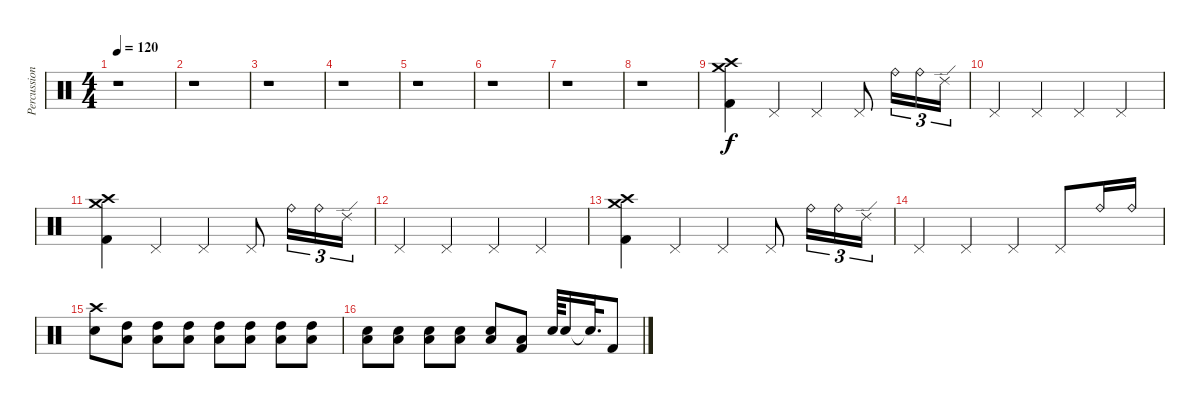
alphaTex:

\track ("Percussion" "Percussion") {instrument percussion}
\staff {score}
\articulation defaults
\ts (4 4)
\tempo 120
\clef neutral
\ks c
r.1{dy f} |
r.1 |
r.1 |
r.1 |
r.1 |
r.1 |
r.1 |
r.1 |
("Crash medium (hit)" "Crash high (hit)" "Kick (hit) 2").4 "Pedal Hi-Hat (hit)".4 "Pedal Hi-Hat (hit)".4 "Pedal Hi-Hat (hit)".8 "Ride (bell)".16{tu (3 2)} "Ride (bell)".16{tu (3 2)} "Ride (edge) 2".16{tu (3 2)} |
"Pedal Hi-Hat (hit)".4 "Pedal Hi-Hat (hit)".4 "Pedal Hi-Hat (hit)".4 "Pedal Hi-Hat (hit)".4 |
("Crash medium (hit)" "Crash high (hit)" "Kick (hit) 2").4 "Pedal Hi-Hat (hit)".4 "Pedal Hi-Hat (hit)".4 "Pedal Hi-Hat (hit)".8 "Ride (bell)".16{tu (3 2)} "Ride (bell)".16{tu (3 2)} "Ride (edge) 2".16{tu (3 2)} |
"Pedal Hi-Hat (hit)".4 "Pedal Hi-Hat (hit)".4 "Pedal Hi-Hat (hit)".4 "Pedal Hi-Hat (hit)".4 |
("Crash medium (hit)" "Crash high (hit)" "Kick (hit) 2").4 "Pedal Hi-Hat (hit)".4 "Pedal Hi-Hat (hit)".4 "Pedal Hi-Hat (hit)".8 "Ride (bell)".16{tu (3 2)} "Ride (bell)".16{tu (3 2)} "Ride (edge) 2".16{tu (3 2)} |
"Pedal Hi-Hat (hit)".4 "Pedal Hi-Hat (hit)".4 "Pedal Hi-Hat (hit)".4 "Pedal Hi-Hat (hit)".8 "Ride (bell)".16 "Ride (bell)".16 |
("Crash high (hit)" "Electric Snare (hit)").8 ("Low Floor Tom (hit)" "High Tom (hit)").8 ("Low Floor Tom (hit)" "High Tom (hit)").8 ("Low Floor Tom (hit)" "High Tom (hit)").8 ("Low Floor Tom (hit)" "High Tom (hit)").8 ("Low Floor Tom (hit)" "High Tom (hit)").8 ("Low Floor Tom (hit)" "High Tom (hit)").8 ("Low Floor Tom (hit)" "High Tom (hit)").8 |
("Low Floor Tom (hit)" "Electric Snare (hit)").8 ("Low Floor Tom (hit)" "Electric Snare (hit)").8 ("Low Floor Tom (hit)" "Electric Snare (hit)").8 ("Low Floor Tom (hit)" "Electric Snare (hit)").8 ("Low Floor Tom (hit)" "Electric Snare (hit)").8 ("Low Floor Tom (hit)" "Kick (hit) 2").8 "Electric Snare (hit)".64 "Electric Snare (hit)".16 "Snare (hit)"{t}.32{d} "Kick (hit) 2".8
